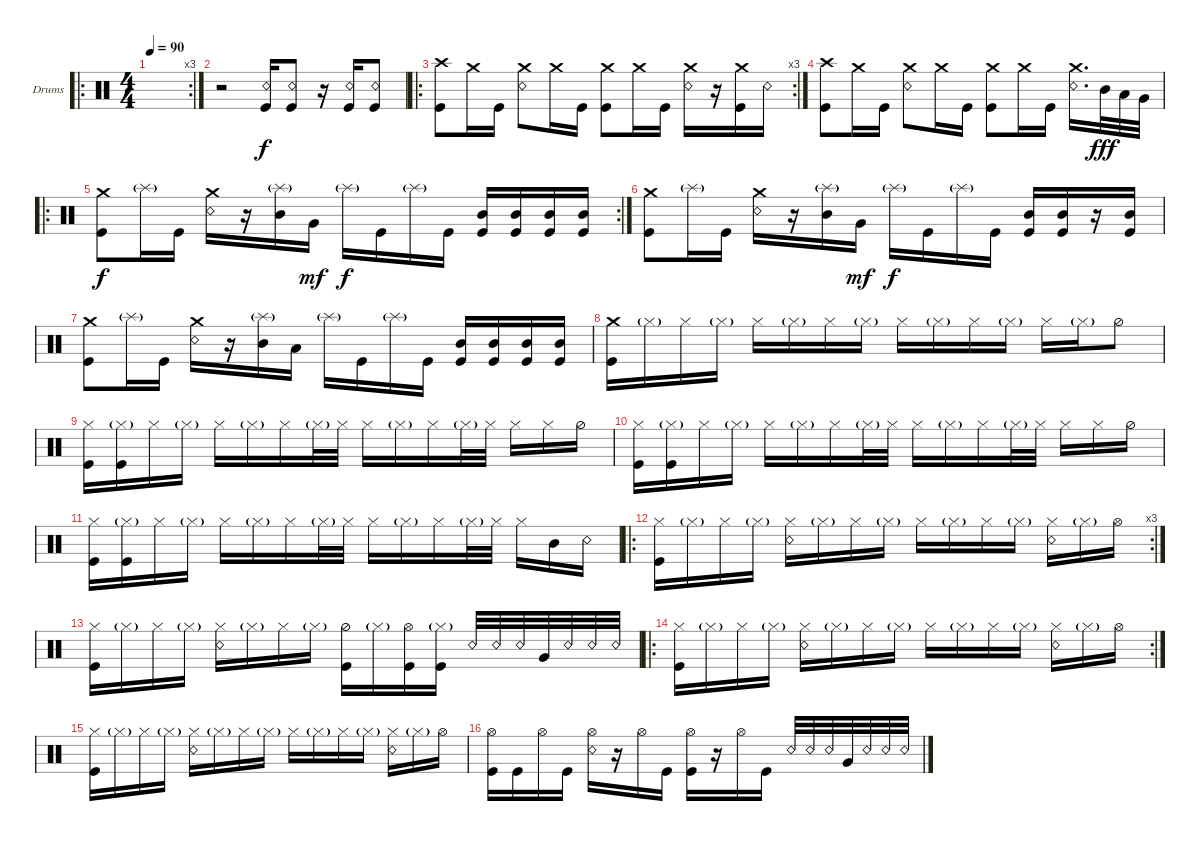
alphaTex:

\bracketExtendMode groupsimilarinstruments
\firstSystemTrackNameOrientation horizontal
\otherSystemsTrackNameOrientation horizontal
\track ("Drumkit" "Drums") {instrument percussion}
\staff {score}
\articulation defaults
\ro
\rc 3
\ts (4 4)
\tempo 90
\clef neutral
\scale
0.47619
\ks c
|
\scale
0.22619 r.2 ("Kick (hit)" "Snare (rim shot)").16 ("Kick (hit)" "Snare (rim shot)").8 r.16 ("Kick (hit)" "Snare (rim shot)").16 ("Kick (hit)" "Snare (rim shot)").8 |
\ro
\rc 3
\scale
0.297619 ("Kick (hit)" "Crash high (hit)").8 "Crash medium (hit)".16 "Kick (hit)".16 ("Crash medium (hit)" "Snare (rim shot)").8 "Crash medium (hit)".16 "Kick (hit)".16 ("Kick (hit)" "Crash medium (hit)").8 "Crash medium (hit)".16 "Kick (hit)".16 ("Snare (rim shot)" "Crash medium (hit)").16 r.16 ("Crash medium (hit)" "Kick (hit)").16 "Snare (rim shot)".16 |
("Kick (hit)" "Crash high (hit)").8 "Crash medium (hit)".16 "Kick (hit)".16 ("Crash medium (hit)" "Snare (rim shot)").8 "Crash medium (hit)".16 "Kick (hit)".16 ("Kick (hit)" "Crash medium (hit)").8 "Crash medium (hit)".16 "Kick (hit)".16 ("Snare (rim shot)" "Crash medium (hit)").16{d} "Mid Tom (hit)".32{dy fff} "Low Tom (hit)".32 "Very Low Tom (hit)".32 |
\ro
\rc 2
\scale
0.396825 ("Kick (hit)" "Crash medium (hit)").8{dy f} "Splash (hit)"{g}.16 "Kick (hit)".16 ("Snare (rim shot)" "Crash medium (hit)").16 r.16 ("Splash (hit)"{g} "Mid Tom (hit)").16 "Very Low Tom (hit)".16{dy mf} "Splash (hit)"{g}.16{dy f} "Kick (hit)".16 "Splash (hit)"{g}.16 "Kick (hit)".16 ("Kick (hit)" "Mid Tom (hit)").16 ("Kick (hit)" "Mid Tom (hit)").16 ("Kick (hit)" "Mid Tom (hit)").16 ("Kick (hit)" "Mid Tom (hit)").16 |
\scale
0.301587 ("Kick (hit)" "Crash medium (hit)").8 "Splash (hit)"{g}.16 "Kick (hit)".16 ("Snare (rim shot)" "Crash medium (hit)").16 r.16 ("Splash (hit)"{g} "Mid Tom (hit)").16 "Very Low Tom (hit)".16{dy mf} "Splash (hit)"{g}.16{dy f} "Kick (hit)".16 "Splash (hit)"{g}.16 "Kick (hit)".16 ("Kick (hit)" "Mid Tom (hit)").16 ("Kick (hit)" "Mid Tom (hit)").16 r.16 ("Kick (hit)" "Mid Tom (hit)").16 |
\scale
0.301587 ("Kick (hit)" "Crash medium (hit)").8 "Splash (hit)"{g}.16 "Kick (hit)".16 ("Snare (rim shot)" "Crash medium (hit)").16 r.16 ("Splash (hit)"{g} "Mid Tom (hit)").16 "Low Tom (hit)".16 "Splash (hit)"{g}.16 "Kick (hit)".16 "Splash (hit)"{g}.16 "Kick (hit)".16 ("Kick (hit)" "Mid Tom (hit)").16 ("Kick (hit)" "Mid Tom (hit)").16 ("Kick (hit)" "Mid Tom (hit)").16 ("Kick (hit)" "Mid Tom (hit)").16 |
\scale
0.333333 ("Kick (hit)" "Crash medium (hit)").16 "Hi-Hat (closed)"{g}.16 "Hi-Hat (closed)".16 "Hi-Hat (closed)"{g}.16 "Hi-Hat (closed)".16 "Hi-Hat (closed)"{g}.16 "Hi-Hat (closed)".16 "Hi-Hat (closed)"{g}.16 "Hi-Hat (closed)".16 "Hi-Hat (closed)"{g}.16 "Hi-Hat (closed)".16 "Hi-Hat (closed)"{g}.16 "Hi-Hat (closed)".16 "Hi-Hat (closed)"{g}.16 "Hi-Hat (half)".8 |
\scale
0.333333 ("Kick (hit)" "Hi-Hat (closed)").16 ("Hi-Hat (closed)"{g} "Kick (hit)").16 "Hi-Hat (closed)".16 "Hi-Hat (closed)"{g}.16 "Hi-Hat (closed)".16 "Hi-Hat (closed)"{g}.16 "Hi-Hat (closed)".16 "Hi-Hat (closed)"{g}.32 "Hi-Hat (closed)".32 "Hi-Hat (closed)".16 "Hi-Hat (closed)"{g}.16 "Hi-Hat (closed)".16 "Hi-Hat (closed)"{g}.32 "Hi-Hat (closed)".32 "Hi-Hat (closed)".16 "Hi-Hat (closed)".16 "Hi-Hat (half)".16 |
\scale
0.333333 ("Kick (hit)" "Hi-Hat (closed)").16 ("Hi-Hat (closed)"{g} "Kick (hit)").16 "Hi-Hat (closed)".16 "Hi-Hat (closed)"{g}.16 "Hi-Hat (closed)".16 "Hi-Hat (closed)"{g}.16 "Hi-Hat (closed)".16 "Hi-Hat (closed)"{g}.32 "Hi-Hat (closed)".32 "Hi-Hat (closed)".16 "Hi-Hat (closed)"{g}.16 "Hi-Hat (closed)".16 "Hi-Hat (closed)"{g}.32 "Hi-Hat (closed)".32 "Hi-Hat (closed)".16 "Hi-Hat (closed)".16 "Hi-Hat (half)".16 |
\scale
0.275362 ("Kick (hit)" "Hi-Hat (closed)").16 ("Hi-Hat (closed)"{g} "Kick (hit)").16 "Hi-Hat (closed)".16 "Hi-Hat (closed)"{g}.16 "Hi-Hat (closed)".16 "Hi-Hat (closed)"{g}.16 "Hi-Hat (closed)".16 "Hi-Hat (closed)"{g}.32 "Hi-Hat (closed)".32 "Hi-Hat (closed)".16 "Hi-Hat (closed)"{g}.16 "Hi-Hat (closed)".16 "Hi-Hat (closed)"{g}.32 "Hi-Hat (closed)".32 "Hi-Hat (closed)".16 "Mid Tom (hit)".16 "Snare (rim shot)".16 |
\ro
\rc 3
\scale
0.362319 ("Kick (hit)" "Hi-Hat (closed)").16 "Hi-Hat (closed)"{g}.16 "Hi-Hat (closed)".16 "Hi-Hat (closed)"{g}.16 ("Hi-Hat (closed)" "Snare (rim shot)").16 "Hi-Hat (closed)"{g}.16 "Hi-Hat (closed)".16 "Hi-Hat (closed)"{g}.16 "Hi-Hat (closed)".16 "Hi-Hat (closed)"{g}.16 "Hi-Hat (closed)".16 "Hi-Hat (closed)"{g}.16 ("Hi-Hat (closed)" "Snare (rim shot)").16 "Hi-Hat (closed)"{g}.16 "Hi-Hat (open)".16 |
\scale
0.362319 ("Kick (hit)" "Hi-Hat (closed)").16 "Hi-Hat (closed)"{g}.16 "Hi-Hat (closed)".16 "Hi-Hat (closed)"{g}.16 ("Hi-Hat (closed)" "Snare (rim shot)").16 "Hi-Hat (closed)"{g}.16 "Hi-Hat (closed)".16 "Hi-Hat (closed)"{g}.16 ("Kick (hit)" "Hi-Hat (half)").16 "Hi-Hat (closed)"{g}.16 ("Hi-Hat (open)" "Kick (hit)").16 ("Hi-Hat (closed)"{g} "Kick (hit)").16 "Snare (rim shot)".32 "Snare (rim shot)".32 "Snare (rim shot)".32 "Very Low Tom (hit)".32 "Snare (rim shot)".32 "Snare (rim shot)".32 "Snare (rim shot)".32 |
\ro
\rc 2
("Kick (hit)" "Hi-Hat (closed)").16 "Hi-Hat (closed)"{g}.16 "Hi-Hat (closed)".16 "Hi-Hat (closed)"{g}.16 ("Hi-Hat (closed)" "Snare (rim shot)").16 "Hi-Hat (closed)"{g}.16 "Hi-Hat (closed)".16 "Hi-Hat (closed)"{g}.16 "Hi-Hat (closed)".16 "Hi-Hat (closed)"{g}.16 "Hi-Hat (closed)".16 "Hi-Hat (closed)"{g}.16 ("Hi-Hat (closed)" "Snare (rim shot)").16 "Hi-Hat (closed)"{g}.16 "Hi-Hat (open)".16 |
("Kick (hit)" "Hi-Hat (closed)").16 "Hi-Hat (closed)"{g}.16 "Hi-Hat (closed)".16 "Hi-Hat (closed)"{g}.16 ("Hi-Hat (closed)" "Snare (rim shot)").16 "Hi-Hat (closed)"{g}.16 "Hi-Hat (closed)".16 "Hi-Hat (closed)"{g}.16 "Hi-Hat (closed)".16 "Hi-Hat (closed)"{g}.16 "Hi-Hat (closed)".16 "Hi-Hat (closed)"{g}.16 ("Hi-Hat (closed)" "Snare (rim shot)").16 "Hi-Hat (closed)"{g}.16 "Hi-Hat (open)".16 |
\scale
0.24359 ("Kick (hit)" "Hi-Hat (open)").16 "Kick (hit)".16 "Hi-Hat (open)".16 "Kick (hit)".16 ("Snare (rim shot)" "Hi-Hat (open)").16 r.16 "Hi-Hat (open)".16 "Kick (hit)".16 ("Hi-Hat (open)" "Kick (hit)").16 r.16 "Hi-Hat (open)".16 "Kick (hit)".16 "Snare (rim shot)".32 "Snare (rim shot)".32 "Snare (rim shot)".32 "Very Low Tom (hit)".32 "Snare (rim shot)".32 "Snare (rim shot)".32 "Snare (rim shot)".32
